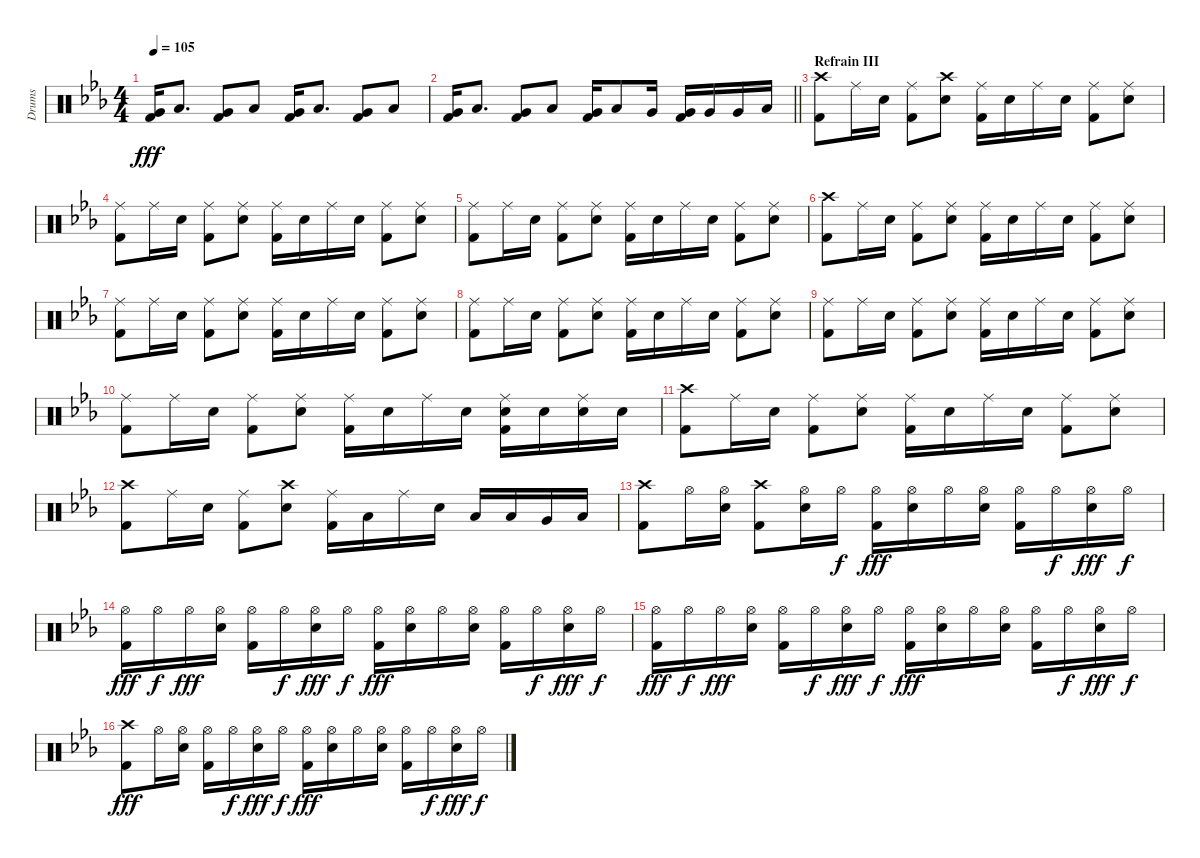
\track ("Drums" "Drums") {instrument percussion}
\staff {score}
\articulation defaults
\ts (4 4)
\tempo 105
\clef neutral
\ks eb
("Very Low Tom (hit)" "Kick (hit) 2").16{dy fff} "Low Floor Tom (hit)".8{d} ("Very Low Tom (hit)" "Kick (hit) 2").8 "Low Floor Tom (hit)".8 ("Very Low Tom (hit)" "Kick (hit) 2").16 "Low Floor Tom (hit)".8{d} ("Very Low Tom (hit)" "Kick (hit) 2").8 "Low Floor Tom (hit)".8 |
\barLineRight lightlight
("Very Low Tom (hit)" "Kick (hit) 2").16 "Low Floor Tom (hit)".8{d} ("Very Low Tom (hit)" "Kick (hit) 2").8 "Low Floor Tom (hit)".8 ("Very Low Tom (hit)" "Kick (hit) 2").16 "Low Floor Tom (hit)".8 "Very Low Tom (hit)".16 ("Very Low Tom (hit)" "Kick (hit) 2").16 "Very Low Tom (hit)".16 "Very Low Tom (hit)".16 "Low Floor Tom (hit)".16 |
\section ("" "Refrain III")
("Crash high (hit)" "Kick (hit) 2").8 "Ride (middle)".16 "Snare (hit) 2".16 ("Ride (middle)" "Kick (hit) 2").8 ("Crash high (hit)" "Snare (hit) 2").8 ("Ride (middle)" "Kick (hit) 2").16 "Snare (hit) 2".16 "Ride (middle)".16 "Snare (hit) 2".16 ("Ride (middle)" "Kick (hit) 2").8 ("Ride (middle)" "Snare (hit) 2").8 |
("Ride (middle)" "Kick (hit) 2").8 "Ride (middle)".16 "Snare (hit) 2".16 ("Ride (middle)" "Kick (hit) 2").8 ("Ride (middle)" "Snare (hit) 2").8 ("Ride (middle)" "Kick (hit) 2").16 "Snare (hit) 2".16 "Ride (middle)".16 "Snare (hit) 2".16 ("Ride (middle)" "Kick (hit) 2").8 ("Ride (middle)" "Snare (hit) 2").8 |
("Ride (middle)" "Kick (hit) 2").8 "Ride (middle)".16 "Snare (hit) 2".16 ("Ride (middle)" "Kick (hit) 2").8 ("Ride (middle)" "Snare (hit) 2").8 ("Ride (middle)" "Kick (hit) 2").16 "Snare (hit) 2".16 "Ride (middle)".16 "Snare (hit) 2".16 ("Ride (middle)" "Kick (hit) 2").8 ("Ride (middle)" "Snare (hit) 2").8 |
("Crash high (hit)" "Kick (hit) 2").8 "Ride (middle)".16 "Snare (hit) 2".16 ("Ride (middle)" "Kick (hit) 2").8 ("Ride (middle)" "Snare (hit) 2").8 ("Ride (middle)" "Kick (hit) 2").16 "Snare (hit) 2".16 "Ride (middle)".16 "Snare (hit) 2".16 ("Ride (middle)" "Kick (hit) 2").8 ("Ride (middle)" "Snare (hit) 2").8 |
("Ride (middle)" "Kick (hit) 2").8 "Ride (middle)".16 "Snare (hit) 2".16 ("Ride (middle)" "Kick (hit) 2").8 ("Ride (middle)" "Snare (hit) 2").8 ("Ride (middle)" "Kick (hit) 2").16 "Snare (hit) 2".16 "Ride (middle)".16 "Snare (hit) 2".16 ("Ride (middle)" "Kick (hit) 2").8 ("Ride (middle)" "Snare (hit) 2").8 |
("Ride (middle)" "Kick (hit) 2").8 "Ride (middle)".16 "Snare (hit) 2".16 ("Ride (middle)" "Kick (hit) 2").8 ("Ride (middle)" "Snare (hit) 2").8 ("Ride (middle)" "Kick (hit) 2").16 "Snare (hit) 2".16 "Ride (middle)".16 "Snare (hit) 2".16 ("Ride (middle)" "Kick (hit) 2").8 ("Ride (middle)" "Snare (hit) 2").8 |
("Ride (middle)" "Kick (hit) 2").8 "Ride (middle)".16 "Snare (hit) 2".16 ("Ride (middle)" "Kick (hit) 2").8 ("Ride (middle)" "Snare (hit) 2").8 ("Ride (middle)" "Kick (hit) 2").16 "Snare (hit) 2".16 "Ride (middle)".16 "Snare (hit) 2".16 ("Ride (middle)" "Kick (hit) 2").8 ("Ride (middle)" "Snare (hit) 2").8 |
("Ride (middle)" "Kick (hit) 2").8 "Ride (middle)".16 "Snare (hit) 2".16 ("Ride (middle)" "Kick (hit) 2").8 ("Ride (middle)" "Snare (hit) 2").8 ("Ride (middle)" "Kick (hit) 2").16 "Snare (hit) 2".16 "Ride (middle)".16 "Snare (hit) 2".16 ("Ride (middle)" "Snare (hit) 2" "Kick (hit) 2").16 "Snare (hit) 2".16 ("Ride (middle)" "Snare (hit) 2").16 "Snare (hit) 2".16 |
("Crash high (hit)" "Kick (hit) 2").8 "Ride (middle)".16 "Snare (hit) 2".16 ("Ride (middle)" "Kick (hit) 2").8 ("Ride (middle)" "Snare (hit) 2").8 ("Ride (middle)" "Kick (hit) 2").16 "Snare (hit) 2".16 "Ride (middle)".16 "Snare (hit) 2".16 ("Ride (middle)" "Kick (hit) 2").8 ("Ride (middle)" "Snare (hit) 2").8 |
("Crash high (hit)" "Kick (hit) 2").8 "Ride (middle)".16 "Snare (hit) 2".16 ("Ride (middle)" "Kick (hit) 2").8 ("Crash high (hit)" "Snare (hit) 2").8 ("Ride (middle)" "Kick (hit) 2").16 "Low Tom (hit)".16 "Ride (middle)".16 "Snare (hit) 2".16 "Low Tom (hit)".16 "Low Tom (hit)".16 "Very Low Tom (hit)".16 "Low Floor Tom (hit)".16 |
("Crash high (hit)" "Kick (hit) 2").8 "Hi-Hat (open)".16 ("Hi-Hat (open)" "Snare (hit) 2").16 ("Crash high (hit)" "Kick (hit) 2").8 ("Hi-Hat (open)" "Snare (hit) 2").16 "Hi-Hat (open)".16{dy f} ("Hi-Hat (open)" "Kick (hit) 2").16{dy fff} ("Hi-Hat (open)" "Snare (hit) 2").16 "Hi-Hat (open)".16 ("Hi-Hat (open)" "Snare (hit) 2").16 ("Hi-Hat (open)" "Kick (hit) 2").16 "Hi-Hat (open)".16{dy f} ("Hi-Hat (open)" "Snare (hit) 2").16{dy fff} "Hi-Hat (open)".16{dy f} |
("Hi-Hat (open)" "Kick (hit) 2").16{dy fff} "Hi-Hat (open)".16{dy f} "Hi-Hat (open)".16{dy fff} ("Hi-Hat (open)" "Snare (hit) 2").16 ("Hi-Hat (open)" "Kick (hit) 2").16 "Hi-Hat (open)".16{dy f} ("Hi-Hat (open)" "Snare (hit) 2").16{dy fff} "Hi-Hat (open)".16{dy f} ("Hi-Hat (open)" "Kick (hit) 2").16{dy fff} ("Hi-Hat (open)" "Snare (hit) 2").16 "Hi-Hat (open)".16 ("Hi-Hat (open)" "Snare (hit) 2").16 ("Hi-Hat (open)" "Kick (hit) 2").16 "Hi-Hat (open)".16{dy f} ("Hi-Hat (open)" "Snare (hit) 2").16{dy fff} "Hi-Hat (open)".16{dy f} |
("Hi-Hat (open)" "Kick (hit) 2").16{dy fff} "Hi-Hat (open)".16{dy f} "Hi-Hat (open)".16{dy fff} ("Hi-Hat (open)" "Snare (hit) 2").16 ("Hi-Hat (open)" "Kick (hit) 2").16 "Hi-Hat (open)".16{dy f} ("Hi-Hat (open)" "Snare (hit) 2").16{dy fff} "Hi-Hat (open)".16{dy f} ("Hi-Hat (open)" "Kick (hit) 2").16{dy fff} ("Hi-Hat (open)" "Snare (hit) 2").16 "Hi-Hat (open)".16 ("Hi-Hat (open)" "Snare (hit) 2").16 ("Hi-Hat (open)" "Kick (hit) 2").16 "Hi-Hat (open)".16{dy f} ("Hi-Hat (open)" "Snare (hit) 2").16{dy fff} "Hi-Hat (open)".16{dy f} |
("Crash high (hit)" "Kick (hit) 2").8{dy fff} "Hi-Hat (open)".16 ("Hi-Hat (open)" "Snare (hit) 2").16 ("Hi-Hat (open)" "Kick (hit) 2").16 "Hi-Hat (open)".16{dy f} ("Hi-Hat (open)" "Snare (hit) 2").16{dy fff} "Hi-Hat (open)".16{dy f} ("Hi-Hat (open)" "Kick (hit) 2").16{dy fff} ("Hi-Hat (open)" "Snare (hit) 2").16 "Hi-Hat (open)".16 ("Hi-Hat (open)" "Snare (hit) 2").16 ("Hi-Hat (open)" "Kick (hit) 2").16 "Hi-Hat (open)".16{dy f} ("Hi-Hat (open)" "Snare (hit) 2").16{dy fff} "Hi-Hat (open)".16{dy f}
